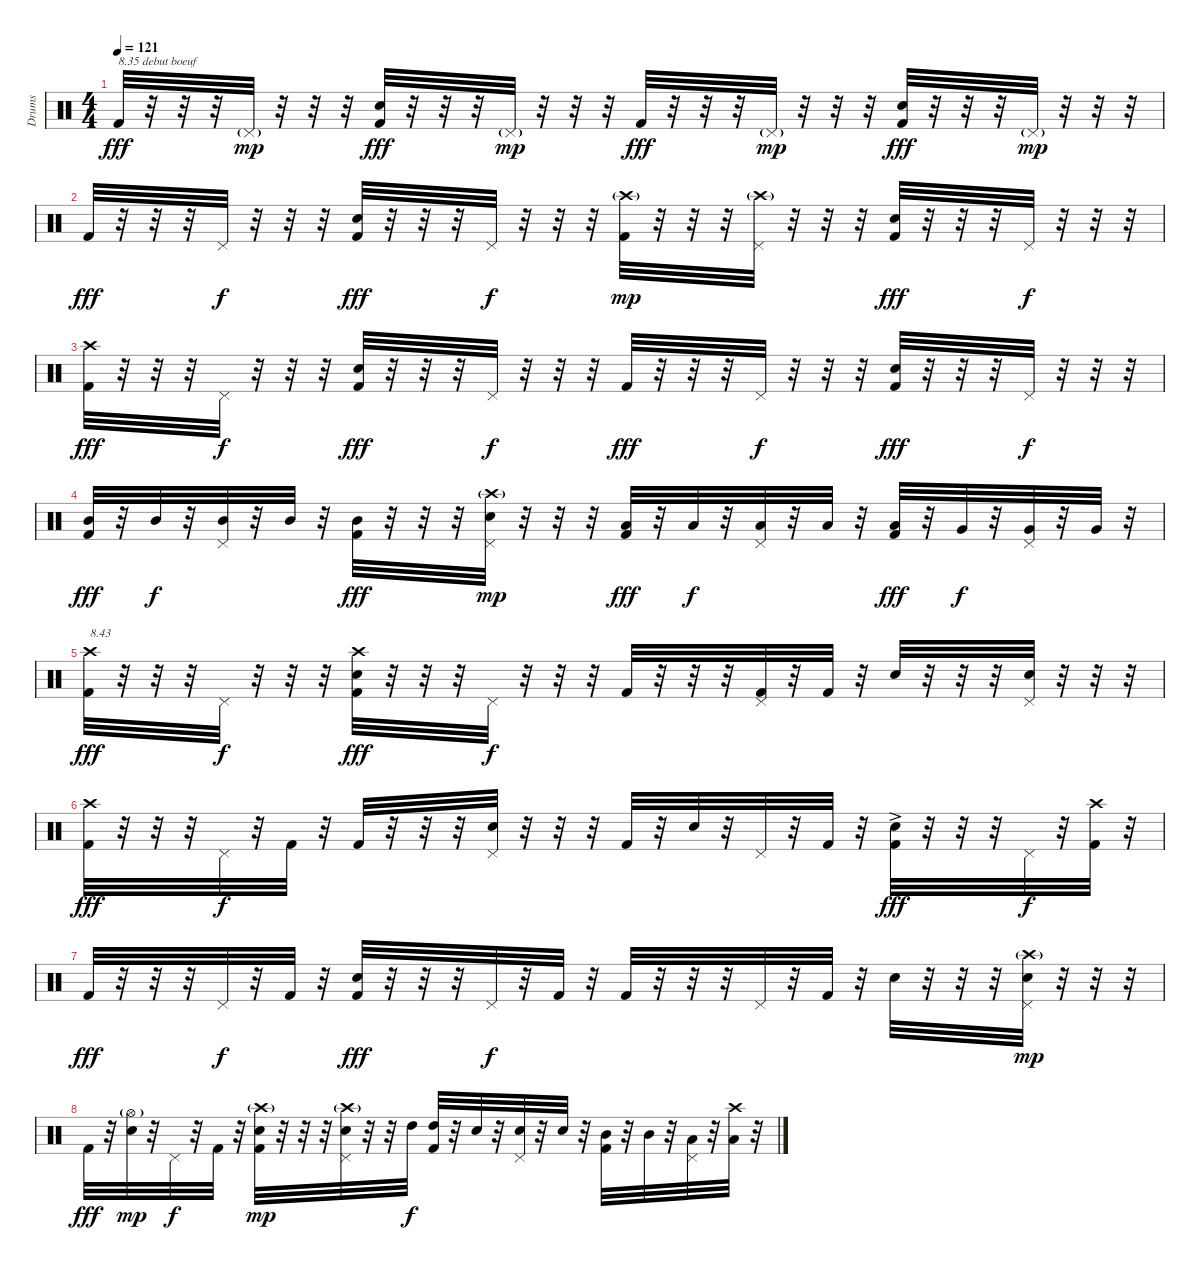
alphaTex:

\track ("Drums" "Drums") {instrument percussion}
\staff {score}
\articulation defaults
\ts (4 4)
\tempo 121
\clef neutral
\ks c "Kick (hit) 2".32{txt "8.35 debut boeuf" dy fff}
r.32 r.32 r.32 "Pedal Hi-Hat (hit)"{g}.32{dy mp} r.32 r.32 r.32 ("Kick (hit) 2" "Snare (hit) 2").32{dy fff} r.32 r.32 r.32 "Pedal Hi-Hat (hit)"{g}.32{dy mp} r.32 r.32 r.32 "Kick (hit) 2".32{dy fff} r.32 r.32 r.32 "Pedal Hi-Hat (hit)"{g}.32{dy mp} r.32 r.32 r.32 ("Kick (hit) 2" "Snare (hit) 2").32{dy fff} r.32 r.32 r.32 "Pedal Hi-Hat (hit)"{g}.32{dy mp} r.32 r.32 r.32 |
"Kick (hit) 2".32{dy fff} r.32 r.32 r.32 "Pedal Hi-Hat (hit)".32{dy f} r.32 r.32 r.32 ("Kick (hit) 2" "Snare (hit) 2").32{dy fff} r.32 r.32 r.32 "Pedal Hi-Hat (hit)".32{dy f} r.32 r.32 r.32 ("Kick (hit) 2" "Crash high (hit)"{g}).32{dy mp} r.32 r.32 r.32 ("Pedal Hi-Hat (hit)" "Crash high (hit)"{g}).32 r.32 r.32 r.32 ("Kick (hit) 2" "Snare (hit) 2").32{dy fff} r.32 r.32 r.32 "Pedal Hi-Hat (hit)".32{dy f} r.32 r.32 r.32 |
("Kick (hit) 2" "Crash high (hit)").32{dy fff} r.32 r.32 r.32 "Pedal Hi-Hat (hit)".32{dy f} r.32 r.32 r.32 ("Kick (hit) 2" "Snare (hit) 2").32{dy fff} r.32 r.32 r.32 "Pedal Hi-Hat (hit)".32{dy f} r.32 r.32 r.32 "Kick (hit) 2".32{dy fff} r.32 r.32 r.32 "Pedal Hi-Hat (hit)".32{dy f} r.32 r.32 r.32 ("Kick (hit) 2" "Snare (hit) 2").32{dy fff} r.32 r.32 r.32 "Pedal Hi-Hat (hit)".32{dy f} r.32 r.32 r.32 |
("Kick (hit) 2" "Mid Tom (hit)").32{dy fff} r.32 "Mid Tom (hit)".32{dy f} r.32 ("Pedal Hi-Hat (hit)" "Mid Tom (hit)").32 r.32 "Mid Tom (hit)".32 r.32 ("Kick (hit) 2" "Mid Tom (hit)").32{dy fff} r.32 r.32 r.32 ("Pedal Hi-Hat (hit)" "Crash high (hit)"{g} "Snare (hit) 2").32{dy mp} r.32 r.32 r.32 ("Kick (hit) 2" "Low Tom (hit)").32{dy fff} r.32 "Low Tom (hit)".32{dy f} r.32 ("Pedal Hi-Hat (hit)" "Low Tom (hit)").32 r.32 "Low Tom (hit)".32 r.32 ("Kick (hit) 2" "Low Tom (hit)").32{dy fff} r.32 "Very Low Tom (hit)".32{dy f} r.32 ("Pedal Hi-Hat (hit)" "Very Low Tom (hit)").32 r.32 "Very Low Tom (hit)".32 r.32 |
("Kick (hit) 2" "Crash high (hit)").32{txt "8.43" dy fff} r.32 r.32 r.32 "Pedal Hi-Hat (hit)".32{dy f} r.32 r.32 r.32 ("Kick (hit) 2" "Crash high (hit)" "Snare (hit) 2").32{dy fff} r.32 r.32 r.32 "Pedal Hi-Hat (hit)".32{dy f} r.32 r.32 r.32 "Kick (hit) 2".32 r.32 r.32 r.32 ("Pedal Hi-Hat (hit)" "Kick (hit) 2").32 r.32 "Kick (hit) 2".32 r.32 "Snare (hit) 2".32 r.32 r.32 r.32 ("Pedal Hi-Hat (hit)" "Snare (hit) 2").32 r.32 r.32 r.32 |
("Kick (hit) 2" "Crash high (hit)").32{dy fff} r.32 r.32 r.32 "Pedal Hi-Hat (hit)".32{dy f} r.32 "Kick (hit) 2".32 r.32 "Kick (hit) 2".32 r.32 r.32 r.32 ("Pedal Hi-Hat (hit)" "Snare (hit) 2").32 r.32 r.32 r.32 "Kick (hit) 2".32 r.32 "Snare (hit) 2".32 r.32 "Pedal Hi-Hat (hit)".32 r.32 "Kick (hit) 2".32 r.32 ("Kick (hit) 2" "Snare (hit) 2"{ac}).32{dy fff} r.32 r.32 r.32 "Pedal Hi-Hat (hit)".32{dy f} r.32 ("Kick (hit) 2" "Crash high (hit)").32 r.32 |
"Kick (hit) 2".32{dy fff} r.32 r.32 r.32 "Pedal Hi-Hat (hit)".32{dy f} r.32 "Kick (hit) 2".32 r.32 ("Kick (hit) 2" "Snare (hit) 2").32{dy fff} r.32 r.32 r.32 "Pedal Hi-Hat (hit)".32{dy f} r.32 "Kick (hit) 2".32 r.32 "Kick (hit) 2".32 r.32 r.32 r.32 "Pedal Hi-Hat (hit)".32 r.32 "Kick (hit) 2".32 r.32 "Snare (hit) 2".32 r.32 r.32 r.32 ("Pedal Hi-Hat (hit)" "Snare (hit) 2" "Crash high (hit)"{g}).32{dy mp} r.32 r.32 r.32 |
"Kick (hit) 2".32{dy fff} r.32 ("Hi-Hat (open)"{g} "Snare (hit) 2").32{dy mp} r.32 "Pedal Hi-Hat (hit)".32{dy f} r.32 "Kick (hit) 2".32 r.32 ("Kick (hit) 2" "Snare (hit) 2" "Crash high (hit)"{g}).32{dy mp} r.32 r.32 r.32 ("Pedal Hi-Hat (hit)" "Snare (hit) 2" "Crash high (hit)"{g}).32 r.32 r.32 "High Tom (hit)".32{dy f} ("Kick (hit) 2" "High Tom (hit)").32 r.32 "Electric Snare (hit)".32 r.32 ("Pedal Hi-Hat (hit)" "Electric Snare (hit)").32 r.32 "Snare (hit) 2".32 r.32 ("Kick (hit) 2" "Mid Tom (hit)").32 r.32 "Mid Tom (hit)".32 r.32 ("Pedal Hi-Hat (hit)" "Low Tom (hit)").32 r.32 ("Crash high (hit)" "Low Tom (hit)").32 r.32
